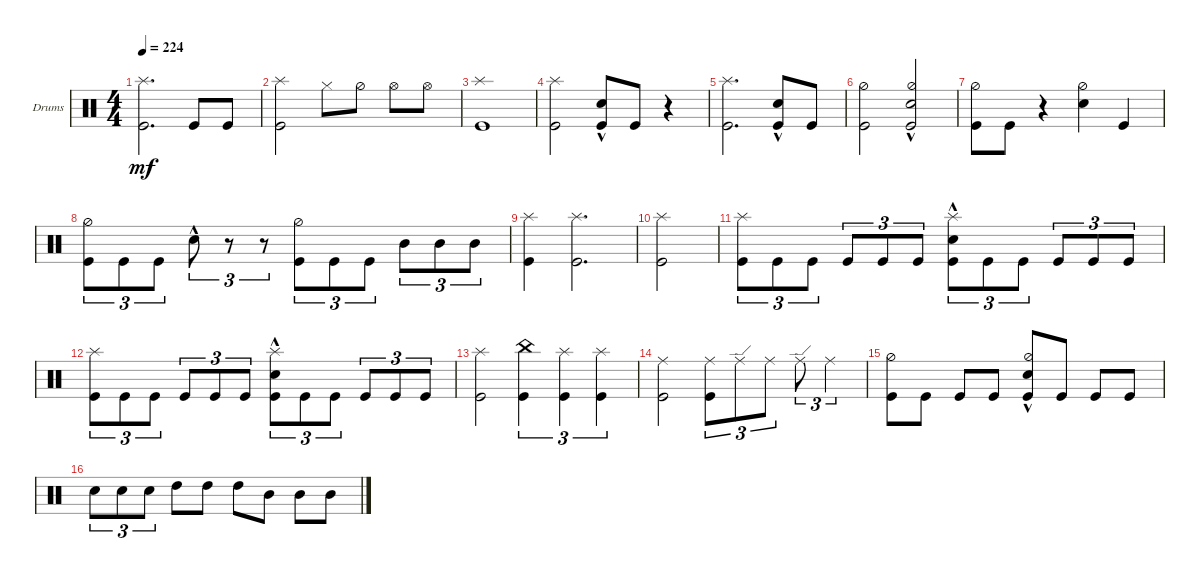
\defaultSystemsLayout 4
\bracketExtendMode groupsimilarinstruments
\firstSystemTrackNameOrientation horizontal
\otherSystemsTrackNameOrientation horizontal
\track ("Drumkit" "Drums") {instrument percussion}
\staff {score}
\articulation defaults
\ts (4 4)
\tempo 224
\clef neutral
\scale
0.333333
\ks c
("Splash (hit)" "Kick (hit)").2{d dy mf} "Kick (hit)".8 "Kick (hit)".8 |
\scale
0.333333 ("Splash (hit)" "Kick (hit)").2 "Hi-Hat (closed)".8 "Hi-Hat (half)".8 "Hi-Hat (open)".8 "Hi-Hat (open)".8 |
\scale
0.333333 ("Splash (hit)" "Kick (hit)").1 |
\scale
0.333333 ("Kick (hit)" "Splash (hit)").2 ("Kick (hit)" "Snare (hit) 2"{hac}).8 "Kick (hit)".8 r.4 |
\scale
0.333333 ("Kick (hit)" "Splash (hit)").2{d} ("Kick (hit)" "Snare (hit) 2"{hac}).8 "Kick (hit)".8 |
\scale
0.333333 ("Kick (hit)" "Hi-Hat (half)").2 ("Hi-Hat (half)" "Snare (hit) 2"{hac} "Kick (hit)").2 |
\scale
0.333333 ("Kick (hit)" "Hi-Hat (half)").8 "Kick (hit)".8 r.4 ("Snare (hit) 2" "Hi-Hat (half)").4 "Kick (hit)".4 |
\scale
0.333333 ("Kick (hit)" "Hi-Hat (half)").8{tu (3 2)} "Kick (hit)".8{tu (3 2)} "Kick (hit)".8{tu (3 2)} "Snare (hit) 2"{hac}.8{tu (3 2)} r.8{tu (3 2)} r.8{tu (3 2)} ("Kick (hit)" "Hi-Hat (half)").8{tu (3 2)} "Kick (hit)".8{tu (3 2)} "Kick (hit)".8{tu (3 2)} "Mid Tom (hit)".8{tu (3 2)} "Mid Tom (hit)".8{tu (3 2)} "Mid Tom (hit)".8{tu (3 2)} |
\scale
0.333333 ("Splash (hit)" "Kick (hit)").4 ("Splash (hit)" "Kick (hit)").2{d} |
\scale
0.333333 ("Kick (hit)" "Splash (hit)").2 |
\scale
0.333333 ("Splash (hit)" "Kick (hit)").8{tu (3 2)} "Kick (hit)".8{tu (3 2)} "Kick (hit)".8{tu (3 2)} "Kick (hit)".8{tu (3 2)} "Kick (hit)".8{tu (3 2)} "Kick (hit)".8{tu (3 2)} ("Kick (hit)" "Splash (hit)" "Snare (hit) 2"{hac}).8{tu (3 2)} "Kick (hit)".8{tu (3 2)} "Kick (hit)".8{tu (3 2)} "Kick (hit)".8{tu (3 2)} "Kick (hit)".8{tu (3 2)} "Kick (hit)".8{tu (3 2)} |
\scale
0.333333 ("Splash (hit)" "Kick (hit)").8{tu (3 2)} "Kick (hit)".8{tu (3 2)} "Kick (hit)".8{tu (3 2)} "Kick (hit)".8{tu (3 2)} "Kick (hit)".8{tu (3 2)} "Kick (hit)".8{tu (3 2)} ("Kick (hit)" "Splash (hit)" "Snare (hit) 2"{hac}).8{tu (3 2)} "Kick (hit)".8{tu (3 2)} "Kick (hit)".8{tu (3 2)} "Kick (hit)".8{tu (3 2)} "Kick (hit)".8{tu (3 2)} "Kick (hit)".8{tu (3 2)} |
\scale
0.333333 ("Splash (hit)" "Kick (hit)").2 ("Kick (hit)" "China (hit)").4{tu (3 2)} ("Kick (hit)" "Splash (hit)").4{tu (3 2)} ("Kick (hit)" "Splash (hit)").4{tu (3 2)} |
\scale
0.311111 ("Ride (middle)" "Kick (hit)").2 ("Ride (middle)" "Kick (hit)").8{tu (3 2)} "Ride (edge)".8{tu (3 2)} "Ride (middle)".8{tu (3 2)} "Ride (edge)".8{tu (3 2)} "Ride (middle)".4{tu (3 2)} |
("Kick (hit)" "Hi-Hat (half)").8 "Kick (hit)".8 "Kick (hit)".8 "Kick (hit)".8 ("Kick (hit)" "Hi-Hat (half)" "Snare (hit) 2"{hac}).8 "Kick (hit)".8 "Kick (hit)".8 "Kick (hit)".8 |
"Snare (hit) 2".8{tu (3 2)} "Snare (hit) 2".8{tu (3 2)} "Snare (hit) 2".8{tu (3 2)} "High Tom (hit)".8 "High Tom (hit)".8 "High Tom (hit)".8 "Mid Tom (hit)".8 "Mid Tom (hit)".8 "Mid Tom (hit)".8
